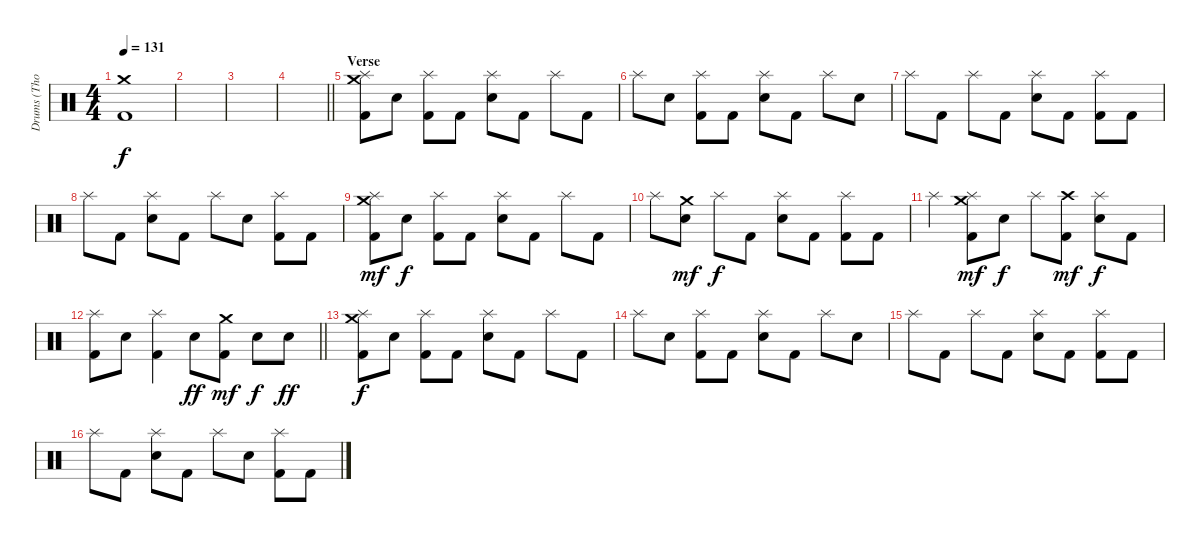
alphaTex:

\track ("Drums (Thomas Haake)" "Drums (Tho") {instrument percussion}
\staff {score}
\articulation defaults
\ts (4 4)
\tempo 131
\clef neutral
\ks c
("Crash medium (hit)" "Kick (hit) 2").1{dy f} |
|
|
\barLineRight lightlight
|
\section ("" "Verse")
("Splash (hit)" "Crash medium (hit)" "Kick (hit) 2").8 "Electric Snare (hit)".8 ("Splash (hit)" "Kick (hit) 2").8 "Kick (hit) 2".8 ("Splash (hit)" "Electric Snare (hit)").8 "Kick (hit) 2".8 "Splash (hit)".8 "Kick (hit) 2".8 |
"Splash (hit)".8 "Electric Snare (hit)".8 ("Splash (hit)" "Kick (hit) 2").8 "Kick (hit) 2".8 ("Splash (hit)" "Electric Snare (hit)").8 "Kick (hit) 2".8 "Splash (hit)".8 "Electric Snare (hit)".8 |
"Splash (hit)".8 "Kick (hit) 2".8 "Splash (hit)".8 "Kick (hit) 2".8 ("Splash (hit)" "Electric Snare (hit)").8 "Kick (hit) 2".8 ("Splash (hit)" "Kick (hit) 2").8 "Kick (hit) 2".8 |
"Splash (hit)".8 "Kick (hit) 2".8 ("Splash (hit)" "Electric Snare (hit)").8 "Kick (hit) 2".8 "Splash (hit)".8 "Electric Snare (hit)".8 ("Splash (hit)" "Kick (hit) 2").8 "Kick (hit) 2".8 |
("Splash (hit)" "Crash medium (hit)" "Kick (hit) 2").8{dy mf} "Electric Snare (hit)".8{dy f} ("Splash (hit)" "Kick (hit) 2").8 "Kick (hit) 2".8 ("Splash (hit)" "Electric Snare (hit)").8 "Kick (hit) 2".8 "Splash (hit)".8 "Kick (hit) 2".8 |
"Splash (hit)".8 ("Crash medium (hit)" "Electric Snare (hit)").8{dy mf} "Splash (hit)".8{dy f} "Kick (hit) 2".8 ("Splash (hit)" "Electric Snare (hit)").8 "Kick (hit) 2".8 ("Splash (hit)" "Kick (hit) 2").8 "Kick (hit) 2".8 |
"Splash (hit)".4 ("Splash (hit)" "Crash medium (hit)" "Kick (hit) 2").8{dy mf} "Electric Snare (hit)".8{dy f} "Splash (hit)".8 ("Crash high (hit)" "Kick (hit) 2").8{dy mf} ("Splash (hit)" "Electric Snare (hit)").8{dy f} "Kick (hit) 2".8 |
\barLineRight lightlight
("Splash (hit)" "Kick (hit) 2").8 "Electric Snare (hit)".8 ("Splash (hit)" "Kick (hit) 2").4 "Electric Snare (hit)".8{dy ff} ("Crash medium (hit)" "Kick (hit) 2").8{dy mf} "Electric Snare (hit)".8{dy f} "Electric Snare (hit)".8{dy ff} |
("Splash (hit)" "Crash medium (hit)" "Kick (hit) 2").8{dy f} "Electric Snare (hit)".8 ("Splash (hit)" "Kick (hit) 2").8 "Kick (hit) 2".8 ("Splash (hit)" "Electric Snare (hit)").8 "Kick (hit) 2".8 "Splash (hit)".8 "Kick (hit) 2".8 |
"Splash (hit)".8 "Electric Snare (hit)".8 ("Splash (hit)" "Kick (hit) 2").8 "Kick (hit) 2".8 ("Splash (hit)" "Electric Snare (hit)").8 "Kick (hit) 2".8 "Splash (hit)".8 "Electric Snare (hit)".8 |
"Splash (hit)".8 "Kick (hit) 2".8 "Splash (hit)".8 "Kick (hit) 2".8 ("Splash (hit)" "Electric Snare (hit)").8 "Kick (hit) 2".8 ("Splash (hit)" "Kick (hit) 2").8 "Kick (hit) 2".8 |
"Splash (hit)".8 "Kick (hit) 2".8 ("Splash (hit)" "Electric Snare (hit)").8 "Kick (hit) 2".8 "Splash (hit)".8 "Electric Snare (hit)".8 ("Splash (hit)" "Kick (hit) 2").8 "Kick (hit) 2".8
